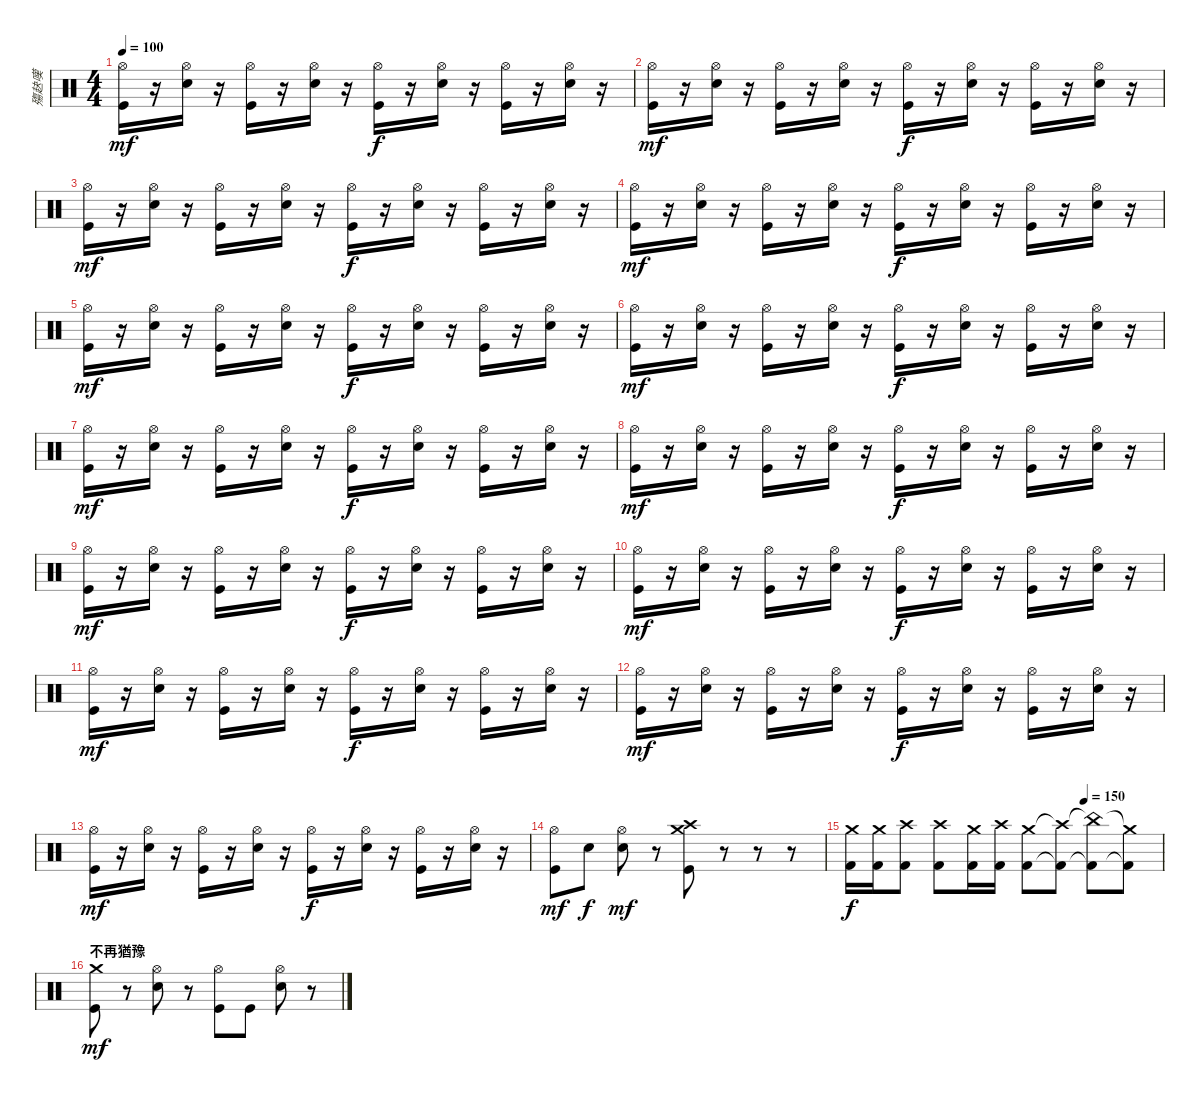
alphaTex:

\track ("殤赽嘆" "殤赽嘆") {instrument percussion}
\staff {score}
\articulation defaults
\ts (4 4)
\tempo 100
\clef neutral
\ks c
("Hi-Hat (open)" "Kick (hit)").16{dy mf} r.16 ("Hi-Hat (open)" "Snare (hit) 2").16 r.16 ("Hi-Hat (open)" "Kick (hit)").16 r.16 ("Hi-Hat (open)" "Snare (hit) 2").16 r.16 ("Hi-Hat (open)" "Kick (hit)").16{dy f} r.16 ("Hi-Hat (open)" "Snare (hit) 2").16 r.16 ("Hi-Hat (open)" "Kick (hit)").16 r.16 ("Hi-Hat (open)" "Snare (hit) 2").16 r.16 |
("Hi-Hat (open)" "Kick (hit)").16{dy mf} r.16 ("Hi-Hat (open)" "Snare (hit) 2").16 r.16 ("Hi-Hat (open)" "Kick (hit)").16 r.16 ("Hi-Hat (open)" "Snare (hit) 2").16 r.16 ("Hi-Hat (open)" "Kick (hit)").16{dy f} r.16 ("Hi-Hat (open)" "Snare (hit) 2").16 r.16 ("Hi-Hat (open)" "Kick (hit)").16 r.16 ("Hi-Hat (open)" "Snare (hit) 2").16 r.16 |
("Hi-Hat (open)" "Kick (hit)").16{dy mf} r.16 ("Hi-Hat (open)" "Snare (hit) 2").16 r.16 ("Hi-Hat (open)" "Kick (hit)").16 r.16 ("Hi-Hat (open)" "Snare (hit) 2").16 r.16 ("Hi-Hat (open)" "Kick (hit)").16{dy f} r.16 ("Hi-Hat (open)" "Snare (hit) 2").16 r.16 ("Hi-Hat (open)" "Kick (hit)").16 r.16 ("Hi-Hat (open)" "Snare (hit) 2").16 r.16 |
("Hi-Hat (open)" "Kick (hit)").16{dy mf} r.16 ("Hi-Hat (open)" "Snare (hit) 2").16 r.16 ("Hi-Hat (open)" "Kick (hit)").16 r.16 ("Hi-Hat (open)" "Snare (hit) 2").16 r.16 ("Hi-Hat (open)" "Kick (hit)").16{dy f} r.16 ("Hi-Hat (open)" "Snare (hit) 2").16 r.16 ("Hi-Hat (open)" "Kick (hit)").16 r.16 ("Hi-Hat (open)" "Snare (hit) 2").16 r.16 |
("Hi-Hat (open)" "Kick (hit)").16{dy mf} r.16 ("Hi-Hat (open)" "Snare (hit) 2").16 r.16 ("Hi-Hat (open)" "Kick (hit)").16 r.16 ("Hi-Hat (open)" "Snare (hit) 2").16 r.16 ("Hi-Hat (open)" "Kick (hit)").16{dy f} r.16 ("Hi-Hat (open)" "Snare (hit) 2").16 r.16 ("Hi-Hat (open)" "Kick (hit)").16 r.16 ("Hi-Hat (open)" "Snare (hit) 2").16 r.16 |
("Hi-Hat (open)" "Kick (hit)").16{dy mf} r.16 ("Hi-Hat (open)" "Snare (hit) 2").16 r.16 ("Hi-Hat (open)" "Kick (hit)").16 r.16 ("Hi-Hat (open)" "Snare (hit) 2").16 r.16 ("Hi-Hat (open)" "Kick (hit)").16{dy f} r.16 ("Hi-Hat (open)" "Snare (hit) 2").16 r.16 ("Hi-Hat (open)" "Kick (hit)").16 r.16 ("Hi-Hat (open)" "Snare (hit) 2").16 r.16 |
("Hi-Hat (open)" "Kick (hit)").16{dy mf} r.16 ("Hi-Hat (open)" "Snare (hit) 2").16 r.16 ("Hi-Hat (open)" "Kick (hit)").16 r.16 ("Hi-Hat (open)" "Snare (hit) 2").16 r.16 ("Hi-Hat (open)" "Kick (hit)").16{dy f} r.16 ("Hi-Hat (open)" "Snare (hit) 2").16 r.16 ("Hi-Hat (open)" "Kick (hit)").16 r.16 ("Hi-Hat (open)" "Snare (hit) 2").16 r.16 |
("Hi-Hat (open)" "Kick (hit)").16{dy mf} r.16 ("Hi-Hat (open)" "Snare (hit) 2").16 r.16 ("Hi-Hat (open)" "Kick (hit)").16 r.16 ("Hi-Hat (open)" "Snare (hit) 2").16 r.16 ("Hi-Hat (open)" "Kick (hit)").16{dy f} r.16 ("Hi-Hat (open)" "Snare (hit) 2").16 r.16 ("Hi-Hat (open)" "Kick (hit)").16 r.16 ("Hi-Hat (open)" "Snare (hit) 2").16 r.16 |
("Hi-Hat (open)" "Kick (hit)").16{dy mf} r.16 ("Hi-Hat (open)" "Snare (hit) 2").16 r.16 ("Hi-Hat (open)" "Kick (hit)").16 r.16 ("Hi-Hat (open)" "Snare (hit) 2").16 r.16 ("Hi-Hat (open)" "Kick (hit)").16{dy f} r.16 ("Hi-Hat (open)" "Snare (hit) 2").16 r.16 ("Hi-Hat (open)" "Kick (hit)").16 r.16 ("Hi-Hat (open)" "Snare (hit) 2").16 r.16 |
("Hi-Hat (open)" "Kick (hit)").16{dy mf} r.16 ("Hi-Hat (open)" "Snare (hit) 2").16 r.16 ("Hi-Hat (open)" "Kick (hit)").16 r.16 ("Hi-Hat (open)" "Snare (hit) 2").16 r.16 ("Hi-Hat (open)" "Kick (hit)").16{dy f} r.16 ("Hi-Hat (open)" "Snare (hit) 2").16 r.16 ("Hi-Hat (open)" "Kick (hit)").16 r.16 ("Hi-Hat (open)" "Snare (hit) 2").16 r.16 |
("Hi-Hat (open)" "Kick (hit)").16{dy mf} r.16 ("Hi-Hat (open)" "Snare (hit) 2").16 r.16 ("Hi-Hat (open)" "Kick (hit)").16 r.16 ("Hi-Hat (open)" "Snare (hit) 2").16 r.16 ("Hi-Hat (open)" "Kick (hit)").16{dy f} r.16 ("Hi-Hat (open)" "Snare (hit) 2").16 r.16 ("Hi-Hat (open)" "Kick (hit)").16 r.16 ("Hi-Hat (open)" "Snare (hit) 2").16 r.16 |
("Hi-Hat (open)" "Kick (hit)").16{dy mf} r.16 ("Hi-Hat (open)" "Snare (hit) 2").16 r.16 ("Hi-Hat (open)" "Kick (hit)").16 r.16 ("Hi-Hat (open)" "Snare (hit) 2").16 r.16 ("Hi-Hat (open)" "Kick (hit)").16{dy f} r.16 ("Hi-Hat (open)" "Snare (hit) 2").16 r.16 ("Hi-Hat (open)" "Kick (hit)").16 r.16 ("Hi-Hat (open)" "Snare (hit) 2").16 r.16 |
("Hi-Hat (open)" "Kick (hit)").16{dy mf} r.16 ("Hi-Hat (open)" "Snare (hit) 2").16 r.16 ("Hi-Hat (open)" "Kick (hit)").16 r.16 ("Hi-Hat (open)" "Snare (hit) 2").16 r.16 ("Hi-Hat (open)" "Kick (hit)").16{dy f} r.16 ("Hi-Hat (open)" "Snare (hit) 2").16 r.16 ("Hi-Hat (open)" "Kick (hit)").16 r.16 ("Hi-Hat (open)" "Snare (hit) 2").16 r.16 |
("Hi-Hat (open)" "Kick (hit)").8{dy mf} "Snare (hit) 2".8{dy f} ("Hi-Hat (open)" "Snare (hit) 2").8{dy mf} r.8 ("Crash medium (hit)" "Crash high (hit)" "Kick (hit)").8 r.8 r.8 r.8 |
\tempo (150 0.75)
("Crash medium (hit)" "Kick (hit) 2").16{dy f} ("Crash medium (hit)" "Kick (hit) 2").16 ("Crash high (hit)" "Kick (hit) 2").8 ("Crash high (hit)" "Kick (hit) 2").8 ("Crash medium (hit)" "Kick (hit) 2").16 ("Crash high (hit)" "Kick (hit) 2").16 ("Crash medium (hit)" "Kick (hit) 2").8 ("Crash high (hit)"{t} "Kick (hit) 2"{t}).8 ("China (hit)"{t} "Kick (hit) 2"{t}).8 ("Crash medium (hit)"{t} "Kick (hit) 2"{t}).8 |
\section ("" "不再猶豫")
("Crash medium (hit)" "Kick (hit)").8{dy mf} r.8 ("Hi-Hat (open)" "Snare (hit) 2").8 r.8 ("Hi-Hat (open)" "Kick (hit)").8 "Kick (hit)".8 ("Hi-Hat (open)" "Snare (hit) 2").8 r.8
